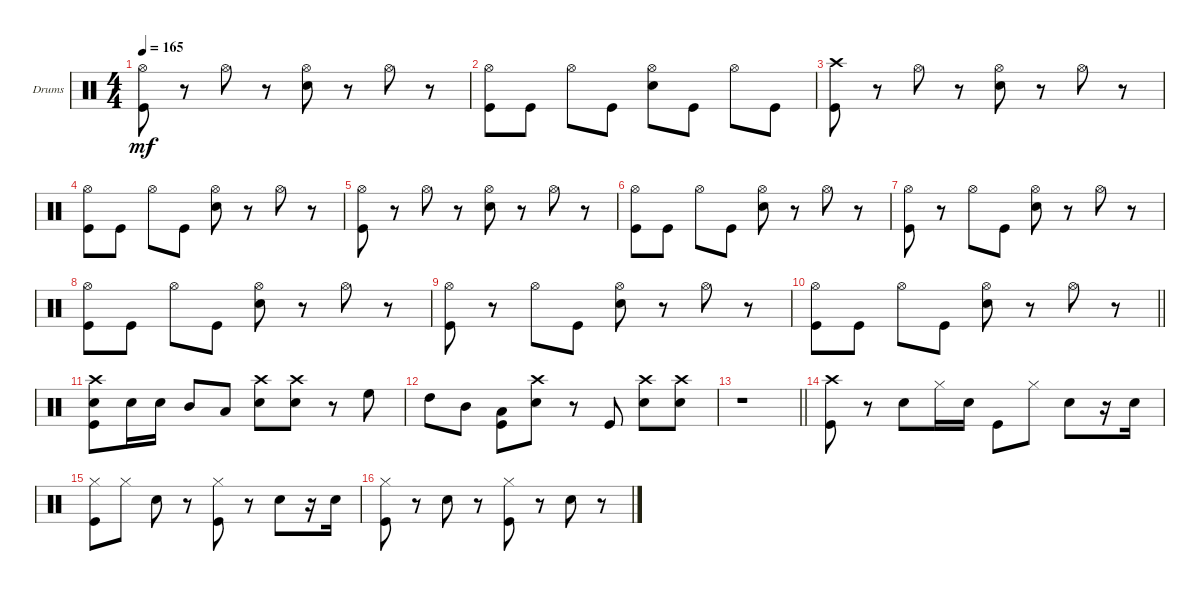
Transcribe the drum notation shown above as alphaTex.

\defaultSystemsLayout 4
\bracketExtendMode groupsimilarinstruments
\firstSystemTrackNameOrientation horizontal
\otherSystemsTrackNameOrientation horizontal
\track ("Drumkit" "Drums") {instrument percussion}
\staff {score}
\articulation defaults
\ts (4 4)
\tempo 165
\clef neutral
\ks c
("Kick (hit)" "Hi-Hat (open)").8{dy mf} r.8 "Hi-Hat (open)".8 r.8 ("Hi-Hat (open)" "Snare (hit) 2").8 r.8 "Hi-Hat (open)".8 r.8 |
("Kick (hit)" "Hi-Hat (open)").8 "Kick (hit)".8 "Hi-Hat (open)".8 "Kick (hit)".8 ("Hi-Hat (open)" "Snare (hit) 2").8 "Kick (hit)".8 "Hi-Hat (open)".8 "Kick (hit)".8 |
("Kick (hit)" "Crash high (hit)").8 r.8 "Hi-Hat (open)".8 r.8 ("Hi-Hat (open)" "Snare (hit) 2").8 r.8 "Hi-Hat (open)".8 r.8 |
("Kick (hit)" "Hi-Hat (open)").8 "Kick (hit)".8 "Hi-Hat (open)".8 "Kick (hit)".8 ("Hi-Hat (open)" "Snare (hit) 2").8 r.8 "Hi-Hat (open)".8 r.8 |
("Kick (hit)" "Hi-Hat (open)").8 r.8 "Hi-Hat (open)".8 r.8 ("Hi-Hat (open)" "Snare (hit) 2").8 r.8 "Hi-Hat (open)".8 r.8 |
("Kick (hit)" "Hi-Hat (open)").8 "Kick (hit)".8 "Hi-Hat (open)".8 "Kick (hit)".8 ("Hi-Hat (open)" "Snare (hit) 2").8 r.8 "Hi-Hat (open)".8 r.8 |
("Kick (hit)" "Hi-Hat (open)").8 r.8 "Hi-Hat (open)".8 "Kick (hit)".8 ("Hi-Hat (open)" "Snare (hit) 2").8 r.8 "Hi-Hat (open)".8 r.8 |
("Kick (hit)" "Hi-Hat (open)").8 "Kick (hit)".8 "Hi-Hat (open)".8 "Kick (hit)".8 ("Hi-Hat (open)" "Snare (hit) 2").8 r.8 "Hi-Hat (open)".8 r.8 |
("Kick (hit)" "Hi-Hat (open)").8 r.8 "Hi-Hat (open)".8 "Kick (hit)".8 ("Hi-Hat (open)" "Snare (hit) 2").8 r.8 "Hi-Hat (open)".8 r.8 |
\barLineRight lightlight
("Kick (hit)" "Hi-Hat (open)").8 "Kick (hit)".8 "Hi-Hat (open)".8 "Kick (hit)".8 ("Hi-Hat (open)" "Snare (hit) 2").8 r.8 "Hi-Hat (open)".8 r.8 |
("Snare (hit) 2" "Kick (hit)" "Crash high (hit)").8 "Snare (hit) 2".16 "Snare (hit) 2".16 "Mid Tom (hit)".8 "Low Tom (hit)".8 ("Snare (hit) 2" "Crash high (hit)").8 ("Snare (hit) 2" "Crash high (hit)").8 r.8 "High Floor Tom (hit)".8 |
"High Tom (hit)".8 "Mid Tom (hit)".8 ("Low Tom (hit)" "Kick (hit)").8 ("Snare (hit) 2" "Crash high (hit)").8 r.8 "Kick (hit)".8 ("Snare (hit) 2" "Crash high (hit)").8 ("Snare (hit) 2" "Crash high (hit)").8 |
\barLineRight lightlight
r.1 |
("Kick (hit)" "Crash high (hit)").8 r.8 "Snare (hit) 2".8 "Hi-Hat (closed)".16 "Snare (hit) 2".16 "Kick (hit)".8 "Hi-Hat (closed)".8 "Snare (hit) 2".8 r.16 "Snare (hit) 2".16 |
("Kick (hit)" "Hi-Hat (closed)").8 "Hi-Hat (closed)".8 "Snare (hit) 2".8 r.8 ("Kick (hit)" "Hi-Hat (closed)").8 r.8 "Snare (hit) 2".8 r.16 "Snare (hit) 2".16 |
("Kick (hit)" "Hi-Hat (closed)").8 r.8 "Snare (hit) 2".8 r.8 ("Kick (hit)" "Hi-Hat (closed)").8 r.8 "Snare (hit) 2".8 r.8
